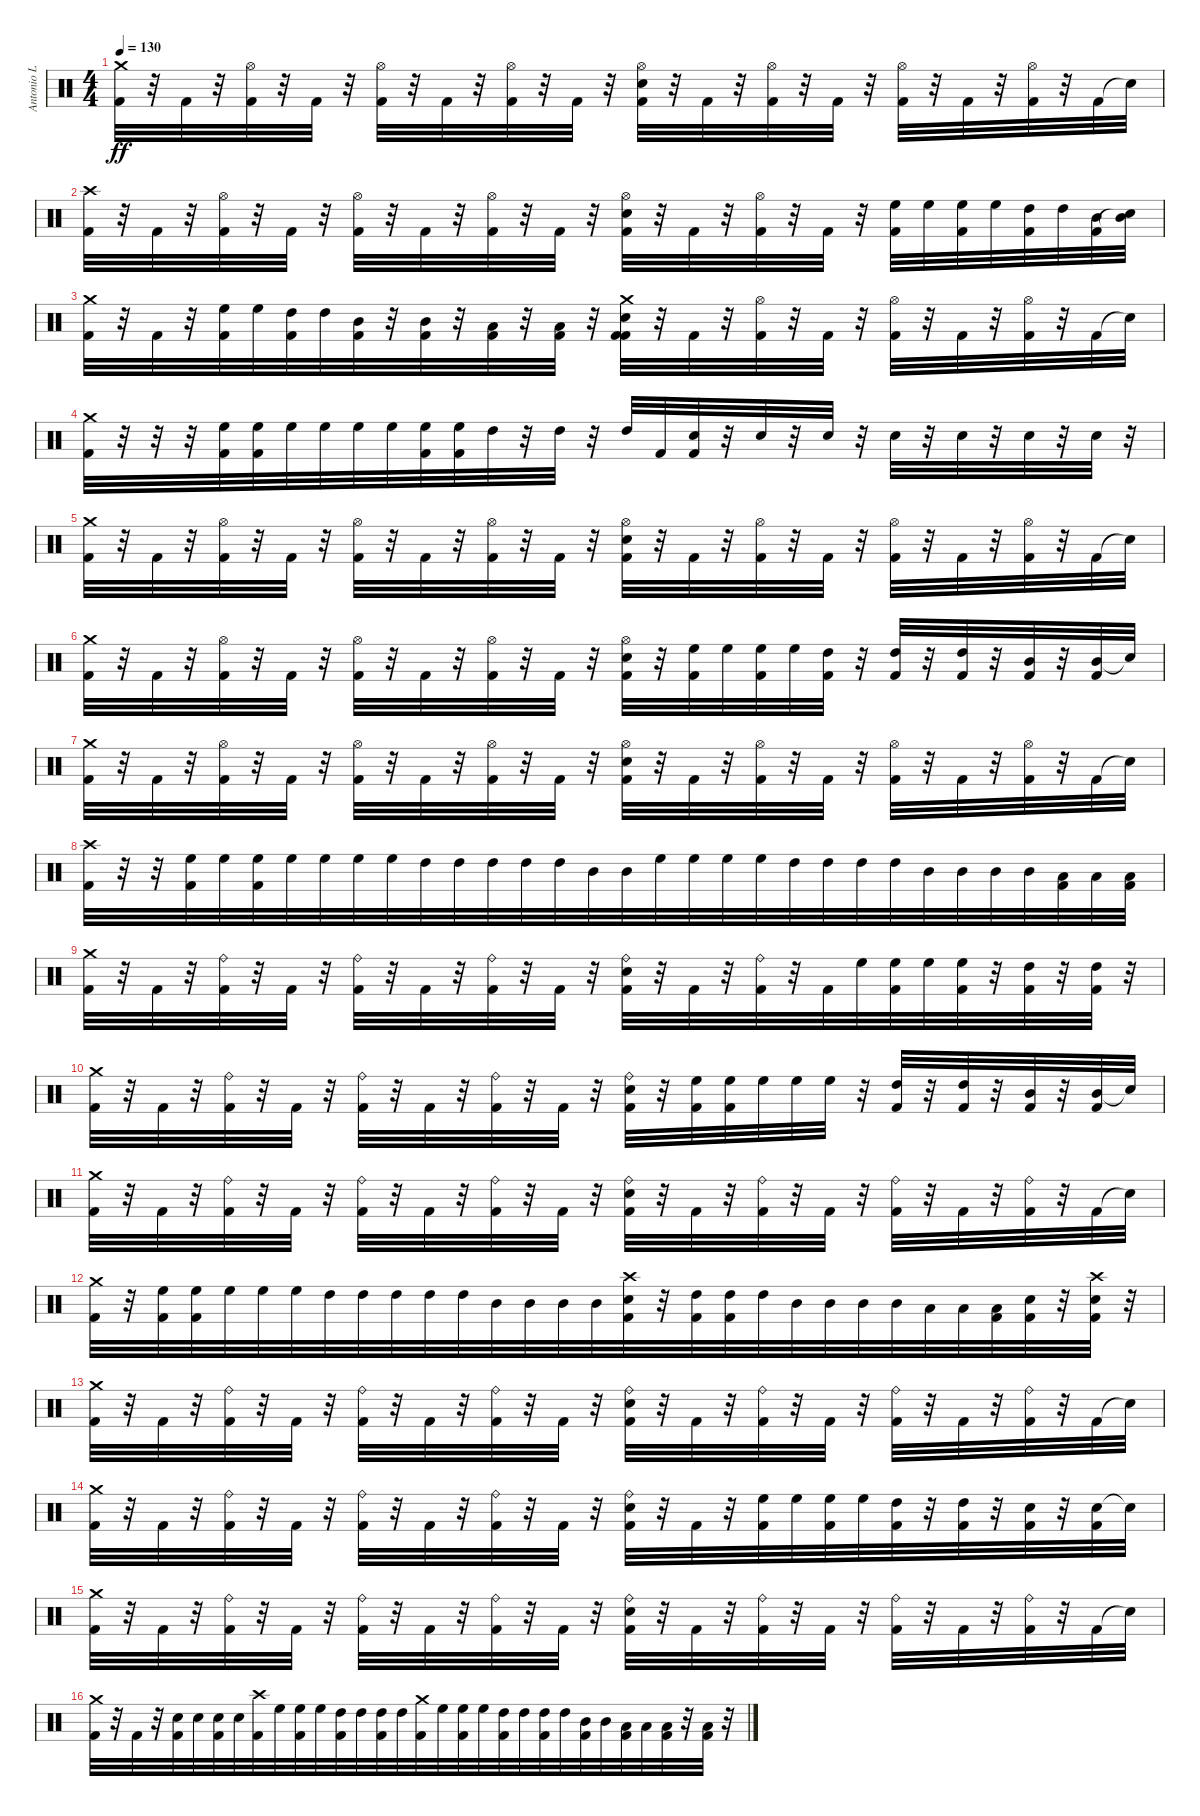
\track ("Antonio L" "Antonio L") {instrument percussion}
\staff {score}
\articulation defaults
\ts (4 4)
\tempo 130
\clef neutral
\ks c
("Crash medium (hit)" "Kick (hit) 2").32{dy ff} r.32 "Kick (hit) 2".32 r.32 ("Hi-Hat (open)" "Kick (hit) 2").32 r.32 "Kick (hit) 2".32 r.32 ("Hi-Hat (open)" "Kick (hit) 2").32 r.32 "Kick (hit) 2".32 r.32 ("Hi-Hat (open)" "Kick (hit) 2").32 r.32 "Kick (hit) 2".32 r.32 ("Hi-Hat (open)" "Electric Snare (hit)" "Kick (hit) 2").32 r.32 "Kick (hit) 2".32 r.32 ("Hi-Hat (open)" "Kick (hit) 2").32 r.32 "Kick (hit) 2".32 r.32 ("Hi-Hat (open)" "Kick (hit) 2").32 r.32 "Kick (hit) 2".32 r.32 ("Hi-Hat (open)" "Kick (hit) 2").32 r.32 "Kick (hit) 2".32 "Electric Snare (hit)"{t}.32 |
("Crash high (hit)" "Kick (hit) 2").32 r.32 "Kick (hit) 2".32 r.32 ("Hi-Hat (open)" "Kick (hit) 2").32 r.32 "Kick (hit) 2".32 r.32 ("Hi-Hat (open)" "Kick (hit) 2").32 r.32 "Kick (hit) 2".32 r.32 ("Hi-Hat (open)" "Kick (hit) 2").32 r.32 "Kick (hit) 2".32 r.32 ("Hi-Hat (open)" "Electric Snare (hit)" "Kick (hit) 2").32 r.32 "Kick (hit) 2".32 r.32 ("Hi-Hat (open)" "Kick (hit) 2").32 r.32 "Kick (hit) 2".32 r.32 ("High Floor Tom (hit)" "Kick (hit) 2").32 "High Floor Tom (hit)".32 ("High Floor Tom (hit)" "Kick (hit) 2").32 "High Floor Tom (hit)".32 ("High Tom (hit)" "Kick (hit) 2").32 "High Tom (hit)".32 ("Mid Tom (hit)" "Kick (hit) 2").32 ("Mid Tom (hit)" "Electric Snare (hit)"{t}).32 |
("Crash medium (hit)" "Kick (hit) 2").32 r.32 "Kick (hit) 2".32 r.32 ("High Floor Tom (hit)" "Kick (hit) 2").32 "High Floor Tom (hit)".32 ("High Tom (hit)" "Kick (hit) 2").32 "High Tom (hit)".32{beam merge} ("Mid Tom (hit)" "Kick (hit) 2").32 r.32 ("Mid Tom (hit)" "Kick (hit) 2").32 r.32 ("Low Tom (hit)" "Kick (hit) 2").32 r.32 ("Low Tom (hit)" "Kick (hit) 2").32 r.32 ("Crash medium (hit)" "Kick (hit) 2" "Electric Snare (hit)" "Kick (hit) 2").32 r.32 "Kick (hit) 2".32 r.32 ("Hi-Hat (open)" "Kick (hit) 2").32 r.32 "Kick (hit) 2".32 r.32 ("Hi-Hat (open)" "Kick (hit) 2").32 r.32 "Kick (hit) 2".32 r.32 ("Hi-Hat (open)" "Kick (hit) 2").32 r.32 "Kick (hit) 2".32 "Electric Snare (hit)"{t}.32 |
("Crash medium (hit)" "Kick (hit) 2").32 r.32 r.32 r.32 ("High Floor Tom (hit)" "Kick (hit) 2").32 ("High Floor Tom (hit)" "Kick (hit) 2").32 "High Floor Tom (hit)".32 "High Floor Tom (hit)".32{beam merge} "High Floor Tom (hit)".32 "High Floor Tom (hit)".32 ("High Floor Tom (hit)" "Kick (hit) 2").32 ("High Floor Tom (hit)" "Kick (hit) 2").32 "High Tom (hit)".32 r.32 "High Tom (hit)".32 r.32 "High Tom (hit)".32 "Kick (hit) 2".32 ("Electric Snare (hit)" "Kick (hit) 2").32 r.32 "Electric Snare (hit)".32 r.32 "Electric Snare (hit)".32 r.32 "Electric Snare (hit)".32 r.32 "Electric Snare (hit)".32 r.32 "Electric Snare (hit)".32 r.32 "Electric Snare (hit)".32 r.32 |
("Crash medium (hit)" "Kick (hit) 2").32 r.32 "Kick (hit) 2".32 r.32 ("Hi-Hat (open)" "Kick (hit) 2").32 r.32 "Kick (hit) 2".32 r.32 ("Hi-Hat (open)" "Kick (hit) 2").32 r.32 "Kick (hit) 2".32 r.32 ("Hi-Hat (open)" "Kick (hit) 2").32 r.32 "Kick (hit) 2".32 r.32 ("Hi-Hat (open)" "Electric Snare (hit)" "Kick (hit) 2").32 r.32 "Kick (hit) 2".32 r.32 ("Hi-Hat (open)" "Kick (hit) 2").32 r.32 "Kick (hit) 2".32 r.32 ("Hi-Hat (open)" "Kick (hit) 2").32 r.32 "Kick (hit) 2".32 r.32 ("Hi-Hat (open)" "Kick (hit) 2").32 r.32 "Kick (hit) 2".32 "Electric Snare (hit)"{t}.32 |
("Crash medium (hit)" "Kick (hit) 2").32 r.32 "Kick (hit) 2".32 r.32 ("Hi-Hat (open)" "Kick (hit) 2").32 r.32 "Kick (hit) 2".32 r.32 ("Hi-Hat (open)" "Kick (hit) 2").32 r.32 "Kick (hit) 2".32 r.32 ("Hi-Hat (open)" "Kick (hit) 2").32 r.32 "Kick (hit) 2".32 r.32 ("Hi-Hat (open)" "Electric Snare (hit)" "Kick (hit) 2").32 r.32 ("High Floor Tom (hit)" "Kick (hit) 2").32 "High Floor Tom (hit)".32 ("High Floor Tom (hit)" "Kick (hit) 2").32 "High Floor Tom (hit)".32 ("High Tom (hit)" "Kick (hit) 2").32 r.32 ("High Tom (hit)" "Kick (hit) 2").32 r.32 ("High Tom (hit)" "Kick (hit) 2").32 r.32 ("Mid Tom (hit)" "Kick (hit) 2").32 r.32 ("Mid Tom (hit)" "Kick (hit) 2").32 "Electric Snare (hit)"{t}.32 |
("Crash medium (hit)" "Kick (hit) 2").32 r.32 "Kick (hit) 2".32 r.32 ("Hi-Hat (open)" "Kick (hit) 2").32 r.32 "Kick (hit) 2".32 r.32 ("Hi-Hat (open)" "Kick (hit) 2").32 r.32 "Kick (hit) 2".32 r.32 ("Hi-Hat (open)" "Kick (hit) 2").32 r.32 "Kick (hit) 2".32 r.32 ("Hi-Hat (open)" "Electric Snare (hit)" "Kick (hit) 2").32 r.32 "Kick (hit) 2".32 r.32 ("Hi-Hat (open)" "Kick (hit) 2").32 r.32 "Kick (hit) 2".32 r.32 ("Hi-Hat (open)" "Kick (hit) 2").32 r.32 "Kick (hit) 2".32 r.32 ("Hi-Hat (open)" "Kick (hit) 2").32 r.32 "Kick (hit) 2".32 "Electric Snare (hit)"{t}.32 |
("Crash high (hit)" "Kick (hit) 2").32 r.32 r.32 ("High Floor Tom (hit)" "Kick (hit) 2").32 "High Floor Tom (hit)".32 ("High Floor Tom (hit)" "Kick (hit) 2").32 "High Floor Tom (hit)".32 "High Floor Tom (hit)".32{beam merge} "High Floor Tom (hit)".32 "High Floor Tom (hit)".32 "High Tom (hit)".32 "High Tom (hit)".32 "High Tom (hit)".32 "High Tom (hit)".32 "High Tom (hit)".32 "Mid Tom (hit)".32{beam merge} "Mid Tom (hit)".32 "High Floor Tom (hit)".32 "High Floor Tom (hit)".32 "High Floor Tom (hit)".32 "High Floor Tom (hit)".32 "High Tom (hit)".32 "High Tom (hit)".32 "High Tom (hit)".32{beam merge} "High Tom (hit)".32 "Mid Tom (hit)".32 "Mid Tom (hit)".32 "Mid Tom (hit)".32 "Mid Tom (hit)".32 ("Low Tom (hit)" "Kick (hit) 2").32 "Low Tom (hit)".32 ("Low Tom (hit)" "Kick (hit) 2").32 |
("Crash medium (hit)" "Kick (hit) 2").32 r.32 "Kick (hit) 2".32 r.32 ("Ride (bell)" "Kick (hit) 2").32 r.32 "Kick (hit) 2".32 r.32 ("Ride (bell)" "Kick (hit) 2").32 r.32 "Kick (hit) 2".32 r.32 ("Ride (bell)" "Kick (hit) 2").32 r.32 "Kick (hit) 2".32 r.32 ("Ride (bell)" "Electric Snare (hit)" "Kick (hit) 2").32 r.32 "Kick (hit) 2".32 r.32 ("Ride (bell)" "Kick (hit) 2").32 r.32 "Kick (hit) 2".32 "High Floor Tom (hit)".32{beam merge} ("High Floor Tom (hit)" "Kick (hit) 2").32 "High Floor Tom (hit)".32 ("High Floor Tom (hit)" "Kick (hit) 2").32 r.32 ("High Tom (hit)" "Kick (hit) 2").32 r.32 ("High Tom (hit)" "Kick (hit) 2").32 r.32 |
("Crash medium (hit)" "Kick (hit) 2").32 r.32 "Kick (hit) 2".32 r.32 ("Ride (bell)" "Kick (hit) 2").32 r.32 "Kick (hit) 2".32 r.32 ("Ride (bell)" "Kick (hit) 2").32 r.32 "Kick (hit) 2".32 r.32 ("Ride (bell)" "Kick (hit) 2").32 r.32 "Kick (hit) 2".32 r.32 ("Ride (bell)" "Electric Snare (hit)" "Kick (hit) 2").32 r.32 ("High Floor Tom (hit)" "Kick (hit) 2").32 ("High Floor Tom (hit)" "Kick (hit) 2").32 "High Floor Tom (hit)".32 "High Floor Tom (hit)".32 "High Floor Tom (hit)".32 r.32 ("High Tom (hit)" "Kick (hit) 2").32 r.32 ("High Tom (hit)" "Kick (hit) 2").32 r.32 ("Mid Tom (hit)" "Kick (hit) 2").32 r.32 ("Mid Tom (hit)" "Kick (hit) 2").32 "Electric Snare (hit)"{t}.32 |
("Crash medium (hit)" "Kick (hit) 2").32 r.32 "Kick (hit) 2".32 r.32 ("Ride (bell)" "Kick (hit) 2").32 r.32 "Kick (hit) 2".32 r.32 ("Ride (bell)" "Kick (hit) 2").32 r.32 "Kick (hit) 2".32 r.32 ("Ride (bell)" "Kick (hit) 2").32 r.32 "Kick (hit) 2".32 r.32 ("Ride (bell)" "Electric Snare (hit)" "Kick (hit) 2").32 r.32 "Kick (hit) 2".32 r.32 ("Ride (bell)" "Kick (hit) 2").32 r.32 "Kick (hit) 2".32 r.32 ("Ride (bell)" "Kick (hit) 2").32 r.32 "Kick (hit) 2".32 r.32 ("Ride (bell)" "Kick (hit) 2").32 r.32 "Kick (hit) 2".32 "Electric Snare (hit)"{t}.32 |
("Crash medium (hit)" "Kick (hit) 2").32 r.32 ("High Floor Tom (hit)" "Kick (hit) 2").32 ("High Floor Tom (hit)" "Kick (hit) 2").32 "High Floor Tom (hit)".32 "High Floor Tom (hit)".32 "High Floor Tom (hit)".32 "High Tom (hit)".32{beam merge} "High Tom (hit)".32 "High Tom (hit)".32 "High Tom (hit)".32 "High Tom (hit)".32 "Mid Tom (hit)".32 "Mid Tom (hit)".32 "Mid Tom (hit)".32 "Mid Tom (hit)".32{beam merge} ("Crash high (hit)" "Electric Snare (hit)" "Kick (hit) 2").32 r.32 ("High Tom (hit)" "Kick (hit) 2").32 ("High Tom (hit)" "Kick (hit) 2").32 "High Tom (hit)".32 "Mid Tom (hit)".32 "Mid Tom (hit)".32 "Mid Tom (hit)".32{beam merge} "Mid Tom (hit)".32 "Low Tom (hit)".32 "Low Tom (hit)".32 ("Low Tom (hit)" "Kick (hit) 2").32 ("Electric Snare (hit)" "Kick (hit) 2").32 r.32 ("Crash high (hit)" "Electric Snare (hit)" "Kick (hit) 2").32 r.32 |
("Crash medium (hit)" "Kick (hit) 2").32 r.32 "Kick (hit) 2".32 r.32 ("Ride (bell)" "Kick (hit) 2").32 r.32 "Kick (hit) 2".32 r.32 ("Ride (bell)" "Kick (hit) 2").32 r.32 "Kick (hit) 2".32 r.32 ("Ride (bell)" "Kick (hit) 2").32 r.32 "Kick (hit) 2".32 r.32 ("Ride (bell)" "Electric Snare (hit)" "Kick (hit) 2").32 r.32 "Kick (hit) 2".32 r.32 ("Ride (bell)" "Kick (hit) 2").32 r.32 "Kick (hit) 2".32 r.32 ("Ride (bell)" "Kick (hit) 2").32 r.32 "Kick (hit) 2".32 r.32 ("Ride (bell)" "Kick (hit) 2").32 r.32 "Kick (hit) 2".32 "Electric Snare (hit)"{t}.32 |
("Crash medium (hit)" "Kick (hit) 2").32 r.32 "Kick (hit) 2".32 r.32 ("Ride (bell)" "Kick (hit) 2").32 r.32 "Kick (hit) 2".32 r.32 ("Ride (bell)" "Kick (hit) 2").32 r.32 "Kick (hit) 2".32 r.32 ("Ride (bell)" "Kick (hit) 2").32 r.32 "Kick (hit) 2".32 r.32 ("Ride (bell)" "Electric Snare (hit)" "Kick (hit) 2").32 r.32 "Kick (hit) 2".32 r.32 ("High Floor Tom (hit)" "Kick (hit) 2").32 "High Floor Tom (hit)".32 ("High Floor Tom (hit)" "Kick (hit) 2").32 "High Floor Tom (hit)".32{beam merge} ("High Tom (hit)" "Kick (hit) 2").32 r.32 ("High Tom (hit)" "Kick (hit) 2").32 r.32 ("Electric Snare (hit)" "Kick (hit) 2").32 r.32 ("Electric Snare (hit)" "Kick (hit) 2").32 "Electric Snare (hit)"{t}.32 |
("Crash medium (hit)" "Kick (hit) 2").32 r.32 "Kick (hit) 2".32 r.32 ("Ride (bell)" "Kick (hit) 2").32 r.32 "Kick (hit) 2".32 r.32 ("Ride (bell)" "Kick (hit) 2").32 r.32 "Kick (hit) 2".32 r.32 ("Ride (bell)" "Kick (hit) 2").32 r.32 "Kick (hit) 2".32 r.32 ("Ride (bell)" "Electric Snare (hit)" "Kick (hit) 2").32 r.32 "Kick (hit) 2".32 r.32 ("Ride (bell)" "Kick (hit) 2").32 r.32 "Kick (hit) 2".32 r.32 ("Ride (bell)" "Kick (hit) 2").32 r.32 "Kick (hit) 2".32 r.32 ("Ride (bell)" "Kick (hit) 2").32 r.32 "Kick (hit) 2".32 "Electric Snare (hit)"{t}.32 |
("Crash medium (hit)" "Kick (hit) 2").32 r.32 "Kick (hit) 2".32 r.32 ("Electric Snare (hit)" "Kick (hit) 2").32 "Electric Snare (hit)".32 ("Electric Snare (hit)" "Kick (hit) 2").32 "Electric Snare (hit)".32{beam merge} ("Crash high (hit)" "Kick (hit) 2").32 "High Floor Tom (hit)".32 ("High Floor Tom (hit)" "Kick (hit) 2").32 "High Floor Tom (hit)".32 ("High Tom (hit)" "Kick (hit) 2").32 "High Tom (hit)".32 ("High Tom (hit)" "Kick (hit) 2").32 "High Tom (hit)".32{beam merge} ("Crash medium (hit)" "Kick (hit) 2").32 "High Floor Tom (hit)".32 ("High Floor Tom (hit)" "Kick (hit) 2").32 "High Floor Tom (hit)".32 ("High Tom (hit)" "Kick (hit) 2").32 "High Tom (hit)".32 ("High Tom (hit)" "Kick (hit) 2").32 "High Tom (hit)".32{beam merge} ("Mid Tom (hit)" "Kick (hit) 2").32 "Mid Tom (hit)".32 ("Low Tom (hit)" "Kick (hit) 2").32 "Low Tom (hit)".32 ("Low Tom (hit)" "Kick (hit) 2").32 r.32 ("Low Tom (hit)" "Kick (hit) 2").32 r.32
